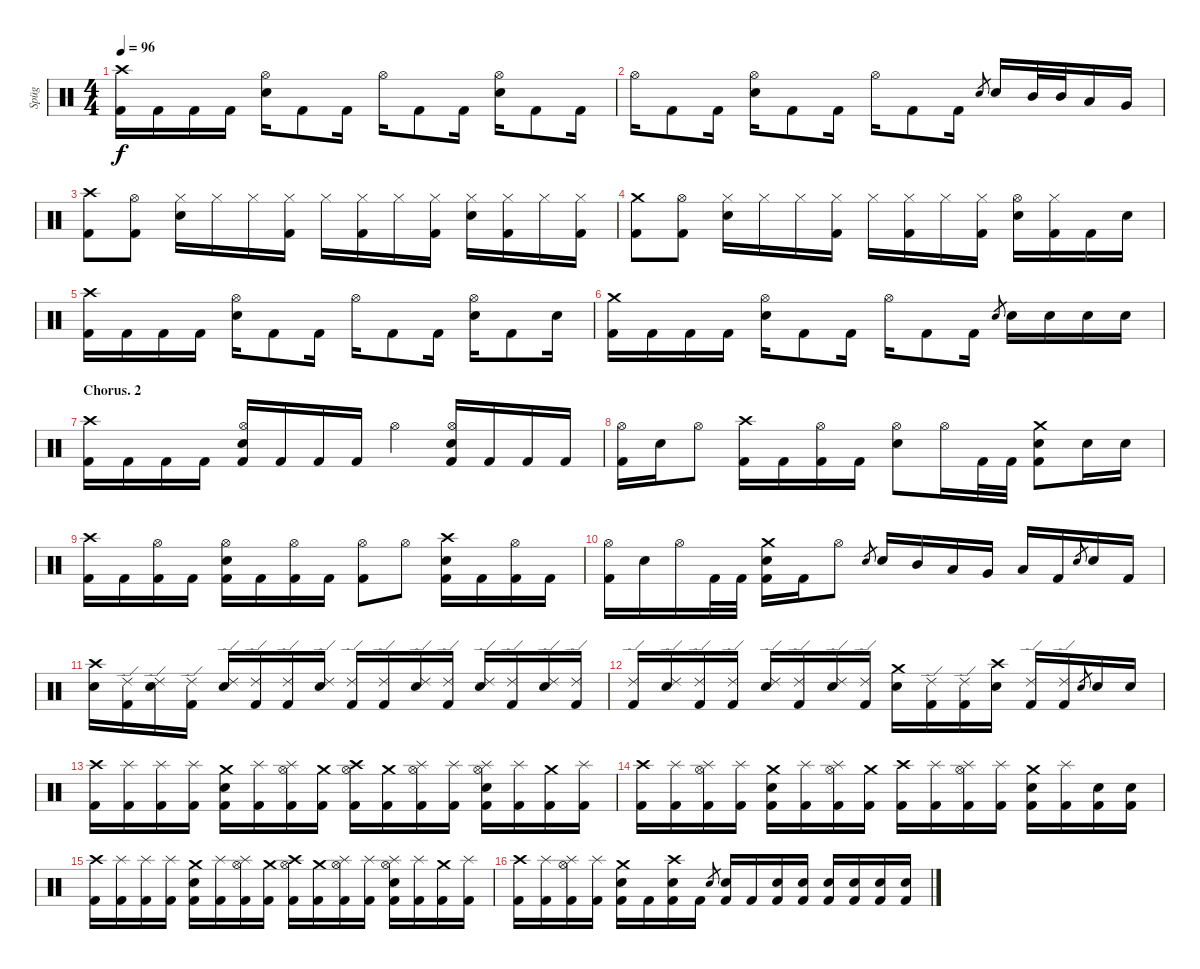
\track ("Spüg" "Spüg") {instrument percussion}
\staff {score}
\articulation defaults
\ts (4 4)
\tempo 96
\clef neutral
\ks c
("Crash high (hit)" "Kick (hit) 2").16{dy f} "Kick (hit) 2".16 "Kick (hit) 2".16 "Kick (hit) 2".16 ("Hi-Hat (open)" "Electric Snare (hit)").16 "Kick (hit) 2".8 "Kick (hit) 2".16 "Hi-Hat (open)".16 "Kick (hit) 2".8 "Kick (hit) 2".16 ("Hi-Hat (open)" "Electric Snare (hit)").16 "Kick (hit) 2".8 "Kick (hit) 2".16 |
"Hi-Hat (open)".16 "Kick (hit) 2".8 "Kick (hit) 2".16 ("Hi-Hat (open)" "Electric Snare (hit)").16 "Kick (hit) 2".8 "Kick (hit) 2".16 "Hi-Hat (open)".16 "Kick (hit) 2".8 "Kick (hit) 2".16 "Electric Snare (hit)".8{gr} "Electric Snare (hit)".16 "Mid Tom (hit)".32 "Mid Tom (hit)".32 "Low Tom (hit)".16 "Very Low Tom (hit)".16 |
("Crash high (hit)" "Kick (hit) 2").8 ("Hi-Hat (open)" "Kick (hit) 2").8 ("Hi-Hat (closed)" "Electric Snare (hit)").16 "Hi-Hat (closed)".16 "Hi-Hat (closed)".16 ("Hi-Hat (closed)" "Kick (hit) 2").16 "Hi-Hat (closed)".16 ("Hi-Hat (closed)" "Kick (hit) 2").16 "Hi-Hat (closed)".16 ("Hi-Hat (closed)" "Kick (hit) 2").16 ("Hi-Hat (closed)" "Electric Snare (hit)").16 ("Hi-Hat (closed)" "Kick (hit) 2").16 "Hi-Hat (closed)".16 ("Hi-Hat (closed)" "Kick (hit) 2").16 |
("Crash medium (hit)" "Kick (hit) 2").8 ("Hi-Hat (open)" "Kick (hit) 2").8 ("Hi-Hat (closed)" "Electric Snare (hit)").16 "Hi-Hat (closed)".16 "Hi-Hat (closed)".16 ("Hi-Hat (closed)" "Kick (hit) 2").16 "Hi-Hat (closed)".16 ("Hi-Hat (closed)" "Kick (hit) 2").16 "Hi-Hat (closed)".16 ("Hi-Hat (closed)" "Kick (hit) 2").16 ("Hi-Hat (open)" "Electric Snare (hit)").16 ("Hi-Hat (closed)" "Kick (hit) 2").16 "Kick (hit) 2".16 "Electric Snare (hit)".16 |
("Crash high (hit)" "Kick (hit) 2").16 "Kick (hit) 2".16 "Kick (hit) 2".16 "Kick (hit) 2".16 ("Hi-Hat (open)" "Electric Snare (hit)").16 "Kick (hit) 2".8 "Kick (hit) 2".16 "Hi-Hat (open)".16 "Kick (hit) 2".8 "Kick (hit) 2".16 ("Hi-Hat (open)" "Electric Snare (hit)").16 "Kick (hit) 2".8 "Electric Snare (hit)".16 |
("Crash medium (hit)" "Kick (hit) 2").16 "Kick (hit) 2".16 "Kick (hit) 2".16 "Kick (hit) 2".16 ("Hi-Hat (open)" "Electric Snare (hit)").16 "Kick (hit) 2".8 "Kick (hit) 2".16 "Hi-Hat (open)".16 "Kick (hit) 2".8 "Kick (hit) 2".16 "Electric Snare (hit)".8{gr} "Electric Snare (hit)".16 "Electric Snare (hit)".16 "Electric Snare (hit)".16 "Electric Snare (hit)".16 |
\section ("" "Chorus. 2")
("Crash high (hit)" "Kick (hit) 2").16 "Kick (hit) 2".16 "Kick (hit) 2".16 "Kick (hit) 2".16 ("Hi-Hat (open)" "Electric Snare (hit)" "Kick (hit) 2").16 "Kick (hit) 2".16 "Kick (hit) 2".16 "Kick (hit) 2".16 "Hi-Hat (open)".4 ("Hi-Hat (open)" "Electric Snare (hit)" "Kick (hit) 2").16 "Kick (hit) 2".16 "Kick (hit) 2".16 "Kick (hit) 2".16 |
("Hi-Hat (open)" "Kick (hit) 2").16 "Electric Snare (hit)".16 "Hi-Hat (open)".8 ("Crash high (hit)" "Kick (hit) 2").16 "Kick (hit) 2".16 ("Hi-Hat (open)" "Kick (hit) 2").16 "Kick (hit) 2".16 ("Hi-Hat (open)" "Electric Snare (hit)").8 "Hi-Hat (open)".16 "Kick (hit) 2".32 "Kick (hit) 2".32 ("Crash medium (hit)" "Electric Snare (hit)" "Kick (hit) 2").8 "Electric Snare (hit)".16 "Electric Snare (hit)".16 |
("Crash high (hit)" "Kick (hit) 2").16 "Kick (hit) 2".16 ("Hi-Hat (open)" "Kick (hit) 2").16 "Kick (hit) 2".16 ("Hi-Hat (open)" "Electric Snare (hit)" "Kick (hit) 2").16 "Kick (hit) 2".16 ("Hi-Hat (open)" "Kick (hit) 2").16 "Kick (hit) 2".16 ("Hi-Hat (open)" "Kick (hit) 2").8 "Hi-Hat (open)".8 ("Crash high (hit)" "Electric Snare (hit)" "Kick (hit) 2").16 "Kick (hit) 2".16 ("Hi-Hat (open)" "Kick (hit) 2").16 "Kick (hit) 2".16 |
("Hi-Hat (open)" "Kick (hit) 2").16 "Electric Snare (hit)".16 "Hi-Hat (open)".16 "Kick (hit) 2".32 "Kick (hit) 2".32 ("Crash medium (hit)" "Electric Snare (hit)" "Kick (hit) 2").16 "Kick (hit) 2".16 "Hi-Hat (open)".8 "Electric Snare (hit)".8{gr} "Electric Snare (hit)".16 "Mid Tom (hit)".16 "Low Tom (hit)".16 "Very Low Tom (hit)".16 "Low Floor Tom (hit)".16 "Kick (hit) 2".16 "Electric Snare (hit)".8{gr} "Electric Snare (hit)".16 "Kick (hit) 2".16 |
("Crash high (hit)" "Electric Snare (hit)").16 ("Ride (edge) 2" "Kick (hit) 2").16 ("Ride (edge) 2" "Electric Snare (hit)").16 ("Ride (edge) 2" "Kick (hit) 2").16 ("Ride (edge) 2" "Electric Snare (hit)").16 ("Ride (edge) 2" "Kick (hit) 2").16 ("Ride (edge) 2" "Kick (hit) 2").16 ("Ride (edge) 2" "Electric Snare (hit)").16 ("Ride (edge) 2" "Kick (hit) 2").16 ("Ride (edge) 2" "Kick (hit) 2").16 ("Ride (edge) 2" "Electric Snare (hit)").16 ("Ride (edge) 2" "Kick (hit) 2").16 ("Ride (edge) 2" "Electric Snare (hit)").16 ("Ride (edge) 2" "Kick (hit) 2").16 ("Ride (edge) 2" "Electric Snare (hit)").16 ("Ride (edge) 2" "Kick (hit) 2").16 |
("Ride (edge) 2" "Kick (hit) 2").16 ("Ride (edge) 2" "Electric Snare (hit)").16 ("Ride (edge) 2" "Kick (hit) 2").16 ("Ride (edge) 2" "Kick (hit) 2").16 ("Ride (edge) 2" "Electric Snare (hit)").16 ("Ride (edge) 2" "Kick (hit) 2").16 ("Ride (edge) 2" "Electric Snare (hit)").16 ("Ride (edge) 2" "Kick (hit) 2").16 ("Crash medium (hit)" "Electric Snare (hit)").16 ("Ride (edge) 2" "Kick (hit) 2").16 ("Ride (edge) 2" "Kick (hit) 2").16 ("Crash high (hit)" "Electric Snare (hit)").16 ("Ride (edge) 2" "Kick (hit) 2").16 ("Ride (edge) 2" "Kick (hit) 2").16 "Electric Snare (hit)".8{gr} "Electric Snare (hit)".16 "Electric Snare (hit)".16 |
("Crash high (hit)" "Kick (hit) 2").16 ("Splash (hit)" "Kick (hit) 2").16 ("Splash (hit)" "Kick (hit) 2").16 ("Splash (hit)" "Kick (hit) 2").16 ("Crash medium (hit)" "Electric Snare (hit)" "Kick (hit) 2").16 ("Splash (hit)" "Kick (hit) 2").16 ("Hi-Hat (open)" "Splash (hit)" "Kick (hit) 2").16 ("Crash medium (hit)" "Kick (hit) 2").16 ("Crash high (hit)" "Hi-Hat (open)" "Kick (hit) 2").16 ("Crash medium (hit)" "Kick (hit) 2").16 ("Hi-Hat (open)" "Splash (hit)" "Kick (hit) 2").16 ("Splash (hit)" "Kick (hit) 2").16 ("Hi-Hat (open)" "Splash (hit)" "Electric Snare (hit)" "Kick (hit) 2").16 ("Splash (hit)" "Kick (hit) 2").16 ("Crash medium (hit)" "Kick (hit) 2").16 ("Splash (hit)" "Kick (hit) 2").16 |
("Crash high (hit)" "Kick (hit) 2").16 ("Splash (hit)" "Kick (hit) 2").16 ("Hi-Hat (open)" "Splash (hit)" "Kick (hit) 2").16 ("Splash (hit)" "Kick (hit) 2").16 ("Crash medium (hit)" "Electric Snare (hit)" "Kick (hit) 2").16 ("Splash (hit)" "Kick (hit) 2").16 ("Hi-Hat (open)" "Splash (hit)" "Kick (hit) 2").16 ("Crash medium (hit)" "Kick (hit) 2").16 ("Crash high (hit)" "Kick (hit) 2").16 ("Splash (hit)" "Kick (hit) 2").16 ("Hi-Hat (open)" "Splash (hit)" "Kick (hit) 2").16 ("Splash (hit)" "Kick (hit) 2").16 ("Crash medium (hit)" "Electric Snare (hit)" "Kick (hit) 2").16 ("Splash (hit)" "Kick (hit) 2").16 ("Electric Snare (hit)" "Kick (hit) 2").16 ("Electric Snare (hit)" "Kick (hit) 2").16 |
("Crash high (hit)" "Kick (hit) 2").16 ("Splash (hit)" "Kick (hit) 2").16 ("Splash (hit)" "Kick (hit) 2").16 ("Splash (hit)" "Kick (hit) 2").16 ("Crash medium (hit)" "Electric Snare (hit)" "Kick (hit) 2").16 ("Splash (hit)" "Kick (hit) 2").16 ("Hi-Hat (open)" "Splash (hit)" "Kick (hit) 2").16 ("Crash medium (hit)" "Kick (hit) 2").16 ("Crash high (hit)" "Hi-Hat (open)" "Kick (hit) 2").16 ("Crash medium (hit)" "Kick (hit) 2").16 ("Hi-Hat (open)" "Splash (hit)" "Kick (hit) 2").16 ("Splash (hit)" "Kick (hit) 2").16 ("Hi-Hat (open)" "Splash (hit)" "Electric Snare (hit)" "Kick (hit) 2").16 ("Splash (hit)" "Kick (hit) 2").16 ("Crash medium (hit)" "Kick (hit) 2").16 ("Splash (hit)" "Kick (hit) 2").16 |
("Crash high (hit)" "Kick (hit) 2").16 ("Splash (hit)" "Kick (hit) 2").16 ("Hi-Hat (open)" "Splash (hit)" "Kick (hit) 2").16 ("Splash (hit)" "Kick (hit) 2").16 ("Crash medium (hit)" "Electric Snare (hit)" "Kick (hit) 2").16 "Kick (hit) 2".16 ("Crash high (hit)" "Electric Snare (hit)" "Kick (hit) 2").16 "Kick (hit) 2".16 "Electric Snare (hit)".8{gr} ("Electric Snare (hit)" "Kick (hit) 2").16 "Kick (hit) 2".16 ("Electric Snare (hit)" "Kick (hit) 2").16 ("Electric Snare (hit)" "Kick (hit) 2").16 ("Electric Snare (hit)" "Kick (hit) 2").16 ("Electric Snare (hit)" "Kick (hit) 2").16 ("Electric Snare (hit)" "Kick (hit) 2").16 ("Electric Snare (hit)" "Kick (hit) 2").16
